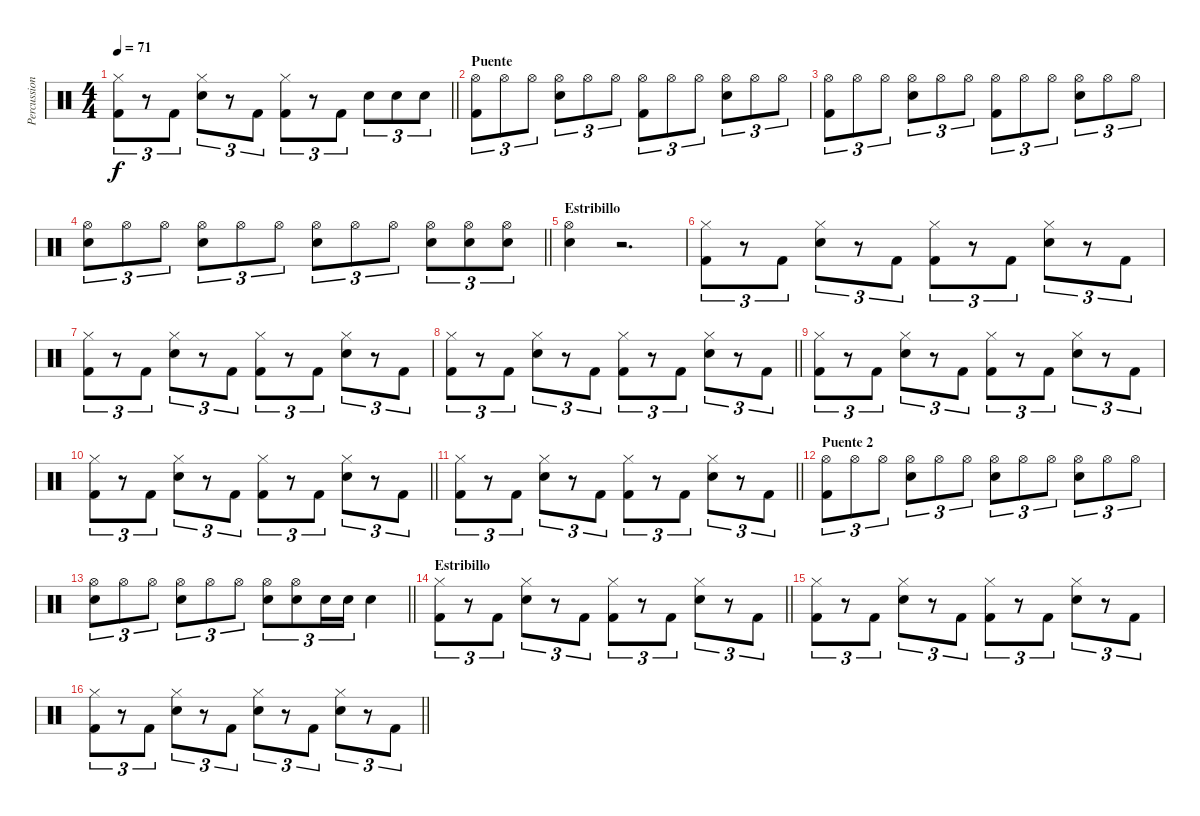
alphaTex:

\track ("Percussion" "Percussion") {instrument percussion}
\staff {score}
\articulation defaults
\ts (4 4)
\tempo 71
\clef neutral
\barLineRight lightlight
\ks c
("Hi-Hat (closed)" "Kick (hit) 2").8{tu (3 2) dy f} r.8{tu (3 2)} "Kick (hit) 2".8{tu (3 2)} ("Hi-Hat (closed)" "Snare (hit) 2").8{tu (3 2)} r.8{tu (3 2)} "Kick (hit) 2".8{tu (3 2)} ("Hi-Hat (closed)" "Kick (hit) 2").8{tu (3 2)} r.8{tu (3 2)} "Kick (hit) 2".8{tu (3 2)} "Snare (hit) 2".8{tu (3 2)} "Snare (hit) 2".8{tu (3 2)} "Snare (hit) 2".8{tu (3 2)} |
\section ("" "Puente")
("Hi-Hat (open)" "Kick (hit) 2").8{tu (3 2)} "Hi-Hat (open)".8{tu (3 2)} "Hi-Hat (open)".8{tu (3 2)} ("Hi-Hat (open)" "Snare (hit) 2").8{tu (3 2)} "Hi-Hat (open)".8{tu (3 2)} "Hi-Hat (open)".8{tu (3 2)} ("Hi-Hat (open)" "Kick (hit) 2").8{tu (3 2)} "Hi-Hat (open)".8{tu (3 2)} "Hi-Hat (open)".8{tu (3 2)} ("Hi-Hat (open)" "Snare (hit) 2").8{tu (3 2)} "Hi-Hat (open)".8{tu (3 2)} "Hi-Hat (open)".8{tu (3 2)} |
("Hi-Hat (open)" "Kick (hit) 2").8{tu (3 2)} "Hi-Hat (open)".8{tu (3 2)} "Hi-Hat (open)".8{tu (3 2)} ("Hi-Hat (open)" "Snare (hit) 2").8{tu (3 2)} "Hi-Hat (open)".8{tu (3 2)} "Hi-Hat (open)".8{tu (3 2)} ("Hi-Hat (open)" "Kick (hit) 2").8{tu (3 2)} "Hi-Hat (open)".8{tu (3 2)} "Hi-Hat (open)".8{tu (3 2)} ("Hi-Hat (open)" "Snare (hit) 2").8{tu (3 2)} "Hi-Hat (open)".8{tu (3 2)} "Hi-Hat (open)".8{tu (3 2)} |
\barLineRight lightlight
("Hi-Hat (open)" "Snare (hit) 2").8{tu (3 2)} "Hi-Hat (open)".8{tu (3 2)} "Hi-Hat (open)".8{tu (3 2)} ("Hi-Hat (open)" "Snare (hit) 2").8{tu (3 2)} "Hi-Hat (open)".8{tu (3 2)} "Hi-Hat (open)".8{tu (3 2)} ("Hi-Hat (open)" "Snare (hit) 2").8{tu (3 2)} "Hi-Hat (open)".8{tu (3 2)} "Hi-Hat (open)".8{tu (3 2)} ("Hi-Hat (open)" "Snare (hit) 2").8{tu (3 2)} ("Hi-Hat (open)" "Snare (hit) 2").8{tu (3 2)} ("Hi-Hat (open)" "Snare (hit) 2").8{tu (3 2)} |
\section ("" "Estribillo")
("Hi-Hat (open)" "Snare (hit) 2").4 r.2{d} |
("Hi-Hat (closed)" "Kick (hit) 2").8{tu (3 2)} r.8{tu (3 2)} "Kick (hit) 2".8{tu (3 2)} ("Hi-Hat (closed)" "Snare (hit) 2").8{tu (3 2)} r.8{tu (3 2)} "Kick (hit) 2".8{tu (3 2)} ("Hi-Hat (closed)" "Kick (hit) 2").8{tu (3 2)} r.8{tu (3 2)} "Kick (hit) 2".8{tu (3 2)} ("Hi-Hat (closed)" "Snare (hit) 2").8{tu (3 2)} r.8{tu (3 2)} "Kick (hit) 2".8{tu (3 2)} |
("Hi-Hat (closed)" "Kick (hit) 2").8{tu (3 2)} r.8{tu (3 2)} "Kick (hit) 2".8{tu (3 2)} ("Hi-Hat (closed)" "Snare (hit) 2").8{tu (3 2)} r.8{tu (3 2)} "Kick (hit) 2".8{tu (3 2)} ("Hi-Hat (closed)" "Kick (hit) 2").8{tu (3 2)} r.8{tu (3 2)} "Kick (hit) 2".8{tu (3 2)} ("Hi-Hat (closed)" "Snare (hit) 2").8{tu (3 2)} r.8{tu (3 2)} "Kick (hit) 2".8{tu (3 2)} |
\barLineRight lightlight
("Hi-Hat (closed)" "Kick (hit) 2").8{tu (3 2)} r.8{tu (3 2)} "Kick (hit) 2".8{tu (3 2)} ("Hi-Hat (closed)" "Snare (hit) 2").8{tu (3 2)} r.8{tu (3 2)} "Kick (hit) 2".8{tu (3 2)} ("Hi-Hat (closed)" "Kick (hit) 2").8{tu (3 2)} r.8{tu (3 2)} "Kick (hit) 2".8{tu (3 2)} ("Hi-Hat (closed)" "Snare (hit) 2").8{tu (3 2)} r.8{tu (3 2)} "Kick (hit) 2".8{tu (3 2)} |
("Hi-Hat (closed)" "Kick (hit) 2").8{tu (3 2)} r.8{tu (3 2)} "Kick (hit) 2".8{tu (3 2)} ("Hi-Hat (closed)" "Snare (hit) 2").8{tu (3 2)} r.8{tu (3 2)} "Kick (hit) 2".8{tu (3 2)} ("Hi-Hat (closed)" "Kick (hit) 2").8{tu (3 2)} r.8{tu (3 2)} "Kick (hit) 2".8{tu (3 2)} ("Hi-Hat (closed)" "Snare (hit) 2").8{tu (3 2)} r.8{tu (3 2)} "Kick (hit) 2".8{tu (3 2)} |
\barLineRight lightlight
("Hi-Hat (closed)" "Kick (hit) 2").8{tu (3 2)} r.8{tu (3 2)} "Kick (hit) 2".8{tu (3 2)} ("Hi-Hat (closed)" "Snare (hit) 2").8{tu (3 2)} r.8{tu (3 2)} "Kick (hit) 2".8{tu (3 2)} ("Hi-Hat (closed)" "Kick (hit) 2").8{tu (3 2)} r.8{tu (3 2)} "Kick (hit) 2".8{tu (3 2)} ("Hi-Hat (closed)" "Snare (hit) 2").8{tu (3 2)} r.8{tu (3 2)} "Kick (hit) 2".8{tu (3 2)} |
\barLineRight lightlight
("Hi-Hat (closed)" "Kick (hit) 2").8{tu (3 2)} r.8{tu (3 2)} "Kick (hit) 2".8{tu (3 2)} ("Hi-Hat (closed)" "Snare (hit) 2").8{tu (3 2)} r.8{tu (3 2)} "Kick (hit) 2".8{tu (3 2)} ("Hi-Hat (closed)" "Kick (hit) 2").8{tu (3 2)} r.8{tu (3 2)} "Kick (hit) 2".8{tu (3 2)} ("Hi-Hat (closed)" "Snare (hit) 2").8{tu (3 2)} r.8{tu (3 2)} "Kick (hit) 2".8{tu (3 2)} |
\section ("" "Puente 2")
("Hi-Hat (open)" "Kick (hit) 2").8{tu (3 2)} "Hi-Hat (open)".8{tu (3 2)} "Hi-Hat (open)".8{tu (3 2)} ("Hi-Hat (open)" "Snare (hit) 2").8{tu (3 2)} "Hi-Hat (open)".8{tu (3 2)} "Hi-Hat (open)".8{tu (3 2)} ("Hi-Hat (open)" "Snare (hit) 2").8{tu (3 2)} "Hi-Hat (open)".8{tu (3 2)} "Hi-Hat (open)".8{tu (3 2)} ("Hi-Hat (open)" "Snare (hit) 2").8{tu (3 2)} "Hi-Hat (open)".8{tu (3 2)} "Hi-Hat (open)".8{tu (3 2)} |
\barLineRight lightlight
("Hi-Hat (open)" "Snare (hit) 2").8{tu (3 2)} "Hi-Hat (open)".8{tu (3 2)} "Hi-Hat (open)".8{tu (3 2)} ("Hi-Hat (open)" "Snare (hit) 2").8{tu (3 2)} "Hi-Hat (open)".8{tu (3 2)} "Hi-Hat (open)".8{tu (3 2)} ("Hi-Hat (open)" "Snare (hit) 2").8{tu (3 2)} ("Hi-Hat (open)" "Snare (hit) 2").8{tu (3 2)} "Snare (hit) 2".16{tu (3 2)} "Snare (hit) 2".16{tu (3 2)} "Snare (hit) 2".4 |
\section ("" "Estribillo")
\barLineRight lightlight
("Hi-Hat (closed)" "Kick (hit) 2").8{tu (3 2)} r.8{tu (3 2)} "Kick (hit) 2".8{tu (3 2)} ("Hi-Hat (closed)" "Snare (hit) 2").8{tu (3 2)} r.8{tu (3 2)} "Kick (hit) 2".8{tu (3 2)} ("Hi-Hat (closed)" "Kick (hit) 2").8{tu (3 2)} r.8{tu (3 2)} "Kick (hit) 2".8{tu (3 2)} ("Hi-Hat (closed)" "Snare (hit) 2").8{tu (3 2)} r.8{tu (3 2)} "Kick (hit) 2".8{tu (3 2)} |
("Hi-Hat (closed)" "Kick (hit) 2").8{tu (3 2)} r.8{tu (3 2)} "Kick (hit) 2".8{tu (3 2)} ("Hi-Hat (closed)" "Snare (hit) 2").8{tu (3 2)} r.8{tu (3 2)} "Kick (hit) 2".8{tu (3 2)} ("Hi-Hat (closed)" "Kick (hit) 2").8{tu (3 2)} r.8{tu (3 2)} "Kick (hit) 2".8{tu (3 2)} ("Hi-Hat (closed)" "Snare (hit) 2").8{tu (3 2)} r.8{tu (3 2)} "Kick (hit) 2".8{tu (3 2)} |
\barLineRight lightlight
("Hi-Hat (closed)" "Kick (hit) 2").8{tu (3 2)} r.8{tu (3 2)} "Kick (hit) 2".8{tu (3 2)} ("Hi-Hat (closed)" "Snare (hit) 2").8{tu (3 2)} r.8{tu (3 2)} "Kick (hit) 2".8{tu (3 2)} ("Hi-Hat (closed)" "Snare (hit) 2").8{tu (3 2)} r.8{tu (3 2)} "Kick (hit) 2".8{tu (3 2)} ("Hi-Hat (closed)" "Snare (hit) 2").8{tu (3 2)} r.8{tu (3 2)} "Kick (hit) 2".8{tu (3 2)}
